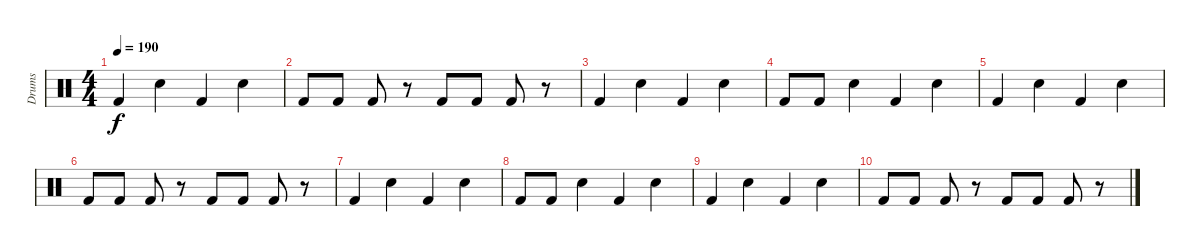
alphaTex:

\track ("Drums" "Drums") {instrument percussion}
\staff {score}
\articulation defaults
\ts (4 4)
\tempo 190
\clef neutral
\ks c "Kick (hit) 2".4{dy f} "Electric Snare (hit)".4 "Kick (hit) 2".4 "Electric Snare (hit)".4
|
"Kick (hit) 2".8 "Kick (hit) 2".8 "Kick (hit) 2".8 r.8 "Kick (hit) 2".8 "Kick (hit) 2".8 "Kick (hit) 2".8 r.8 |
"Kick (hit) 2".4 "Electric Snare (hit)".4 "Kick (hit) 2".4 "Electric Snare (hit)".4 |
"Kick (hit) 2".8 "Kick (hit) 2".8 "Electric Snare (hit)".4 "Kick (hit) 2".4 "Electric Snare (hit)".4 |
"Kick (hit) 2".4 "Electric Snare (hit)".4 "Kick (hit) 2".4 "Electric Snare (hit)".4 |
"Kick (hit) 2".8 "Kick (hit) 2".8 "Kick (hit) 2".8 r.8 "Kick (hit) 2".8 "Kick (hit) 2".8 "Kick (hit) 2".8 r.8 |
"Kick (hit) 2".4 "Electric Snare (hit)".4 "Kick (hit) 2".4 "Electric Snare (hit)".4 |
"Kick (hit) 2".8 "Kick (hit) 2".8 "Electric Snare (hit)".4 "Kick (hit) 2".4 "Electric Snare (hit)".4 |
"Kick (hit) 2".4 "Electric Snare (hit)".4 "Kick (hit) 2".4 "Electric Snare (hit)".4 |
"Kick (hit) 2".8 "Kick (hit) 2".8 "Kick (hit) 2".8 r.8 "Kick (hit) 2".8 "Kick (hit) 2".8 "Kick (hit) 2".8 r.8
